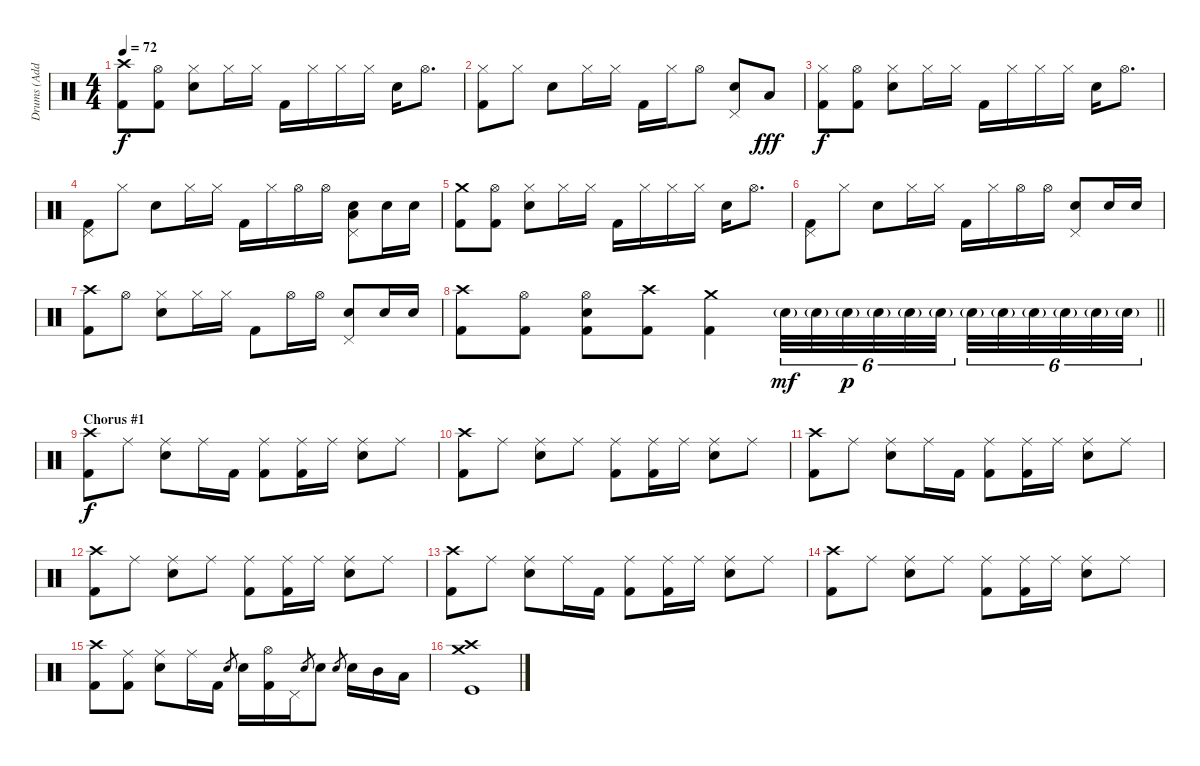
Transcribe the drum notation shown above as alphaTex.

\track ("Drums (Added by Leonardo_codev)" "Drums (Add") {instrument percussion}
\staff {score}
\articulation defaults
\ts (4 4)
\tempo 72
\clef neutral
\ks c
("Crash high (hit)" "Kick (hit) 2").8{dy f} ("Hi-Hat (open)" "Kick (hit) 2").8 ("Hi-Hat (closed)" "Electric Snare (hit)").8 "Hi-Hat (closed)".16 "Hi-Hat (closed)".16 "Kick (hit) 2".16 "Hi-Hat (closed)".16 "Hi-Hat (closed)".16 "Hi-Hat (closed)".16 "Electric Snare (hit)".16 "Hi-Hat (open)".8{d} |
("Hi-Hat (closed)" "Kick (hit) 2").8 "Hi-Hat (closed)".8 "Electric Snare (hit)".8 "Hi-Hat (closed)".16 "Hi-Hat (closed)".16 "Kick (hit) 2".16 "Hi-Hat (closed)".16 "Hi-Hat (open)".8 ("Electric Snare (hit)" "Pedal Hi-Hat (hit)").8 "Low Floor Tom (hit)".8{dy fff} |
("Hi-Hat (closed)" "Kick (hit) 2").8{dy f} ("Hi-Hat (open)" "Kick (hit) 2").8 ("Hi-Hat (closed)" "Electric Snare (hit)").8 "Hi-Hat (closed)".16 "Hi-Hat (closed)".16 "Kick (hit) 2".16 "Hi-Hat (closed)".16 "Hi-Hat (closed)".16 "Hi-Hat (closed)".16 "Electric Snare (hit)".16 "Hi-Hat (open)".8{d} |
("Pedal Hi-Hat (hit)" "Kick (hit) 2").8 "Hi-Hat (closed)".8 "Electric Snare (hit)".8 "Hi-Hat (closed)".16 "Hi-Hat (closed)".16 "Kick (hit) 2".16 "Hi-Hat (closed)".16 "Hi-Hat (open)".16 "Hi-Hat (open)".16 ("Low Floor Tom (hit)" "Electric Snare (hit)" "Pedal Hi-Hat (hit)").8 "Electric Snare (hit)".16 "Electric Snare (hit)".16 |
("Crash medium (hit)" "Kick (hit) 2").8 ("Hi-Hat (open)" "Kick (hit) 2").8 ("Hi-Hat (closed)" "Electric Snare (hit)").8 "Hi-Hat (closed)".16 "Hi-Hat (closed)".16 "Kick (hit) 2".16 "Hi-Hat (closed)".16 "Hi-Hat (closed)".16 "Hi-Hat (closed)".16 "Electric Snare (hit)".16 "Hi-Hat (open)".8{d} |
("Pedal Hi-Hat (hit)" "Kick (hit) 2").8 "Hi-Hat (closed)".8 "Electric Snare (hit)".8 "Hi-Hat (closed)".16 "Hi-Hat (closed)".16 "Kick (hit) 2".16 "Hi-Hat (closed)".16 "Hi-Hat (open)".16 "Hi-Hat (open)".16 ("Electric Snare (hit)" "Pedal Hi-Hat (hit)").8 "Electric Snare (hit)".16 "Electric Snare (hit)".16 |
("Crash high (hit)" "Kick (hit) 2").8 "Hi-Hat (open)".8 ("Hi-Hat (closed)" "Electric Snare (hit)").8 "Hi-Hat (closed)".16 "Hi-Hat (closed)".16 "Kick (hit) 2".8 "Hi-Hat (open)".16 "Hi-Hat (open)".16 ("Electric Snare (hit)" "Pedal Hi-Hat (hit)").8 "Electric Snare (hit)".16 "Electric Snare (hit)".16 |
\barLineRight lightlight
("Crash high (hit)" "Kick (hit) 2").8 ("Hi-Hat (open)" "Kick (hit) 2").8 ("Hi-Hat (open)" "Electric Snare (hit)" "Kick (hit) 2").8 ("Crash high (hit)" "Kick (hit) 2").8 ("Crash medium (hit)" "Kick (hit) 2").4 "Electric Snare (hit)"{g}.32{tu (6 4) dy mf} "Electric Snare (hit)"{g}.32{tu (6 4)} "Electric Snare (hit)"{g}.32{tu (6 4) dy p} "Electric Snare (hit)"{g}.32{tu (6 4)} "Electric Snare (hit)"{g}.32{tu (6 4)} "Electric Snare (hit)"{g}.32{tu (6 4)} "Electric Snare (hit)"{g}.32{tu (6 4)} "Electric Snare (hit)"{g}.32{tu (6 4)} "Electric Snare (hit)"{g}.32{tu (6 4)} "Electric Snare (hit)"{g}.32{tu (6 4)} "Electric Snare (hit)"{g}.32{tu (6 4)} "Electric Snare (hit)"{g}.32{tu (6 4)} |
\section ("" "Chorus #1")
("Crash high (hit)" "Kick (hit) 2").8{dy f} "Ride (middle)".8 ("Ride (middle)" "Electric Snare (hit)").8 "Ride (middle)".16 "Kick (hit) 2".16 ("Ride (middle)" "Kick (hit) 2").8 ("Ride (middle)" "Kick (hit) 2").16 "Ride (middle)".16 ("Ride (middle)" "Electric Snare (hit)").8 "Ride (middle)".8 |
("Crash high (hit)" "Kick (hit) 2").8 "Ride (middle)".8 ("Ride (middle)" "Electric Snare (hit)").8 "Ride (middle)".8 ("Ride (middle)" "Kick (hit) 2").8 ("Ride (middle)" "Kick (hit) 2").16 "Ride (middle)".16 ("Ride (middle)" "Electric Snare (hit)").8 "Ride (middle)".8 |
("Crash high (hit)" "Kick (hit) 2").8 "Ride (middle)".8 ("Ride (middle)" "Electric Snare (hit)").8 "Ride (middle)".16 "Kick (hit) 2".16 ("Ride (middle)" "Kick (hit) 2").8 ("Ride (middle)" "Kick (hit) 2").16 "Ride (middle)".16 ("Ride (middle)" "Electric Snare (hit)").8 "Ride (middle)".8 |
("Crash high (hit)" "Kick (hit) 2").8 "Ride (middle)".8 ("Ride (middle)" "Electric Snare (hit)").8 "Ride (middle)".8 ("Ride (middle)" "Kick (hit) 2").8 ("Ride (middle)" "Kick (hit) 2").16 "Ride (middle)".16 ("Ride (middle)" "Electric Snare (hit)").8 "Ride (middle)".8 |
("Crash high (hit)" "Kick (hit) 2").8 "Ride (middle)".8 ("Ride (middle)" "Electric Snare (hit)").8 "Ride (middle)".16 "Kick (hit) 2".16 ("Ride (middle)" "Kick (hit) 2").8 ("Ride (middle)" "Kick (hit) 2").16 "Ride (middle)".16 ("Ride (middle)" "Electric Snare (hit)").8 "Ride (middle)".8 |
("Crash high (hit)" "Kick (hit) 2").8 "Ride (middle)".8 ("Ride (middle)" "Electric Snare (hit)").8 "Ride (middle)".8 ("Ride (middle)" "Kick (hit) 2").8 ("Ride (middle)" "Kick (hit) 2").16 "Ride (middle)".16 ("Ride (middle)" "Electric Snare (hit)").8 "Ride (middle)".8 |
("Crash high (hit)" "Kick (hit) 2").8 ("Ride (middle)" "Kick (hit) 2").8 ("Ride (middle)" "Electric Snare (hit)").8 "Ride (middle)".16 "Kick (hit) 2".16 "Electric Snare (hit)".8{gr} "Electric Snare (hit)".16 ("Hi-Hat (open)" "Kick (hit) 2").16 "Pedal Hi-Hat (hit)".16 "Electric Snare (hit)".8{gr} "Electric Snare (hit)".8 "Electric Snare (hit)".8{gr} "Electric Snare (hit)".16 "Mid Tom (hit)".16 "Low Tom (hit)".16 |
("Crash high (hit)" "Crash medium (hit)" "Kick (hit)").1
